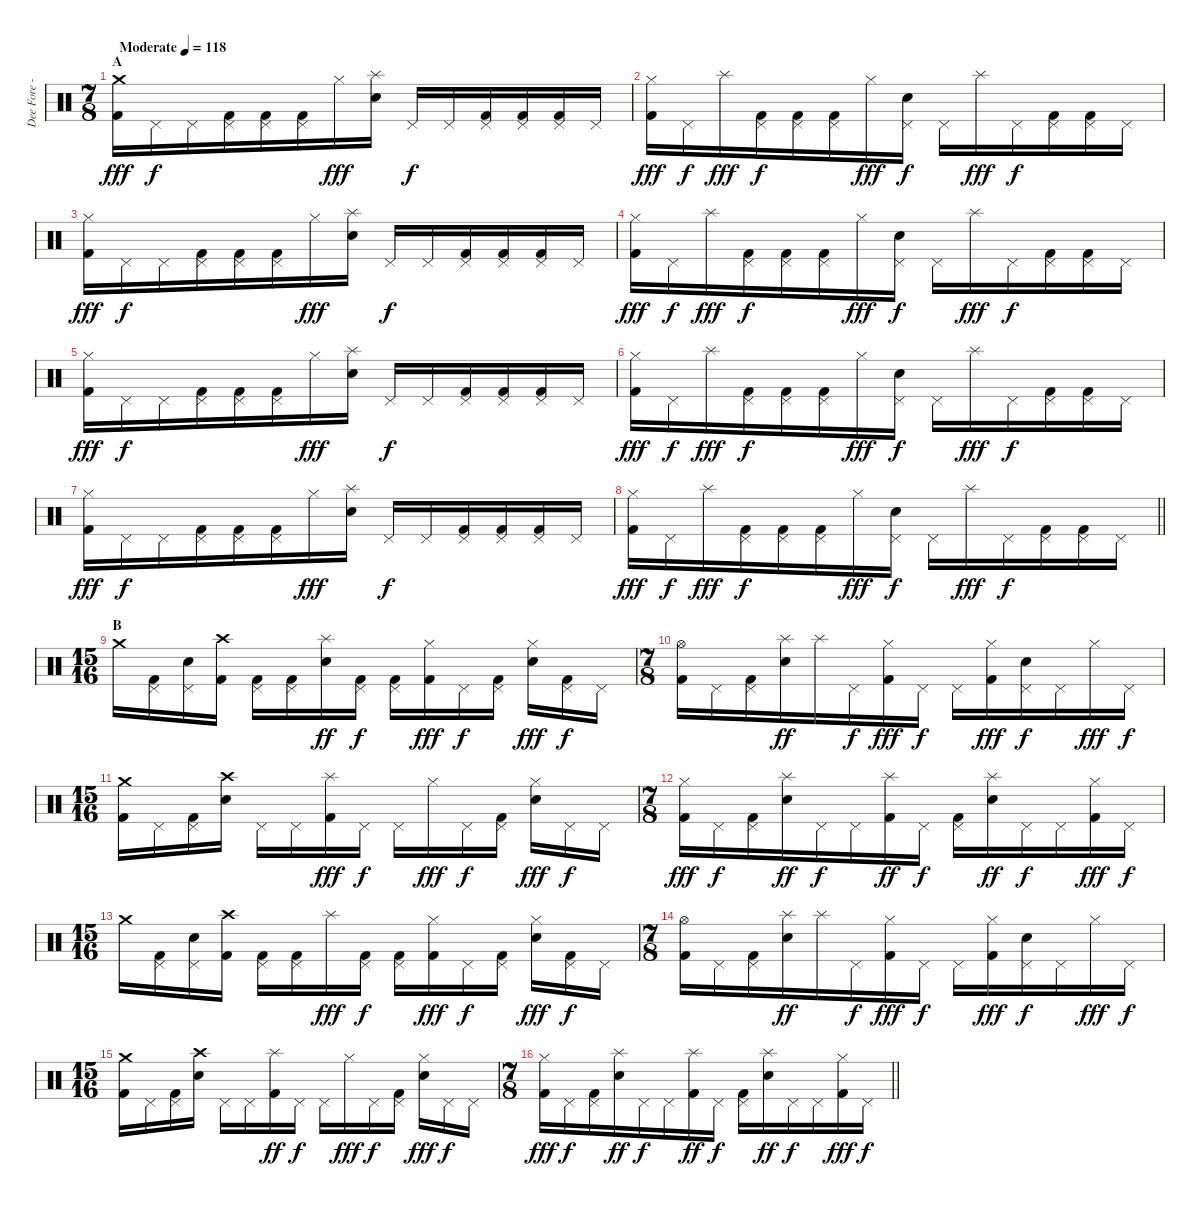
\track ("Dee Fore - Drums" "Dee Fore -") {instrument percussion}
\staff {score}
\articulation defaults
\ts (7 8)
\section ("" "A")
\tempo (118 "Moderate")
\clef neutral
\ks c
("Crash medium (hit)" "Kick (hit) 2").16{dy fff} "Pedal Hi-Hat (hit)".16{dy f} "Pedal Hi-Hat (hit)".16 ("Pedal Hi-Hat (hit)" "Kick (hit) 2").16 ("Pedal Hi-Hat (hit)" "Kick (hit) 2").16 ("Pedal Hi-Hat (hit)" "Kick (hit) 2").16 "Hi-Hat (closed)".16{dy fff} ("Splash (hit)" "Snare (hit) 2").16 "Pedal Hi-Hat (hit)".16{dy f} "Pedal Hi-Hat (hit)".16 ("Pedal Hi-Hat (hit)" "Kick (hit) 2").16 ("Pedal Hi-Hat (hit)" "Kick (hit) 2").16 ("Pedal Hi-Hat (hit)" "Kick (hit) 2").16 "Pedal Hi-Hat (hit)".16 |
("Hi-Hat (closed)" "Kick (hit) 2").16{dy fff} "Pedal Hi-Hat (hit)".16{dy f} "Splash (hit)".16{dy fff} ("Pedal Hi-Hat (hit)" "Kick (hit) 2").16{dy f} ("Pedal Hi-Hat (hit)" "Kick (hit) 2").16 ("Pedal Hi-Hat (hit)" "Kick (hit) 2").16 "Hi-Hat (closed)".16{dy fff} ("Pedal Hi-Hat (hit)" "Snare (hit) 2").16{dy f} "Pedal Hi-Hat (hit)".16 "Splash (hit)".16{dy fff} "Pedal Hi-Hat (hit)".16{dy f} ("Pedal Hi-Hat (hit)" "Kick (hit) 2").16 ("Pedal Hi-Hat (hit)" "Kick (hit) 2").16 "Pedal Hi-Hat (hit)".16 |
("Hi-Hat (closed)" "Kick (hit) 2").16{dy fff} "Pedal Hi-Hat (hit)".16{dy f} "Pedal Hi-Hat (hit)".16 ("Pedal Hi-Hat (hit)" "Kick (hit) 2").16 ("Pedal Hi-Hat (hit)" "Kick (hit) 2").16 ("Pedal Hi-Hat (hit)" "Kick (hit) 2").16 "Hi-Hat (closed)".16{dy fff} ("Splash (hit)" "Snare (hit) 2").16 "Pedal Hi-Hat (hit)".16{dy f} "Pedal Hi-Hat (hit)".16 ("Pedal Hi-Hat (hit)" "Kick (hit) 2").16 ("Pedal Hi-Hat (hit)" "Kick (hit) 2").16 ("Pedal Hi-Hat (hit)" "Kick (hit) 2").16 "Pedal Hi-Hat (hit)".16 |
("Hi-Hat (closed)" "Kick (hit) 2").16{dy fff} "Pedal Hi-Hat (hit)".16{dy f} "Splash (hit)".16{dy fff} ("Pedal Hi-Hat (hit)" "Kick (hit) 2").16{dy f} ("Pedal Hi-Hat (hit)" "Kick (hit) 2").16 ("Pedal Hi-Hat (hit)" "Kick (hit) 2").16 "Hi-Hat (closed)".16{dy fff} ("Pedal Hi-Hat (hit)" "Snare (hit) 2").16{dy f} "Pedal Hi-Hat (hit)".16 "Splash (hit)".16{dy fff} "Pedal Hi-Hat (hit)".16{dy f} ("Pedal Hi-Hat (hit)" "Kick (hit) 2").16 ("Pedal Hi-Hat (hit)" "Kick (hit) 2").16 "Pedal Hi-Hat (hit)".16 |
("Hi-Hat (closed)" "Kick (hit) 2").16{dy fff} "Pedal Hi-Hat (hit)".16{dy f} "Pedal Hi-Hat (hit)".16 ("Pedal Hi-Hat (hit)" "Kick (hit) 2").16 ("Pedal Hi-Hat (hit)" "Kick (hit) 2").16 ("Pedal Hi-Hat (hit)" "Kick (hit) 2").16 "Hi-Hat (closed)".16{dy fff} ("Splash (hit)" "Snare (hit) 2").16 "Pedal Hi-Hat (hit)".16{dy f} "Pedal Hi-Hat (hit)".16 ("Pedal Hi-Hat (hit)" "Kick (hit) 2").16 ("Pedal Hi-Hat (hit)" "Kick (hit) 2").16 ("Pedal Hi-Hat (hit)" "Kick (hit) 2").16 "Pedal Hi-Hat (hit)".16 |
("Hi-Hat (closed)" "Kick (hit) 2").16{dy fff} "Pedal Hi-Hat (hit)".16{dy f} "Splash (hit)".16{dy fff} ("Pedal Hi-Hat (hit)" "Kick (hit) 2").16{dy f} ("Pedal Hi-Hat (hit)" "Kick (hit) 2").16 ("Pedal Hi-Hat (hit)" "Kick (hit) 2").16 "Hi-Hat (closed)".16{dy fff} ("Pedal Hi-Hat (hit)" "Snare (hit) 2").16{dy f} "Pedal Hi-Hat (hit)".16 "Splash (hit)".16{dy fff} "Pedal Hi-Hat (hit)".16{dy f} ("Pedal Hi-Hat (hit)" "Kick (hit) 2").16 ("Pedal Hi-Hat (hit)" "Kick (hit) 2").16 "Pedal Hi-Hat (hit)".16 |
("Hi-Hat (closed)" "Kick (hit) 2").16{dy fff} "Pedal Hi-Hat (hit)".16{dy f} "Pedal Hi-Hat (hit)".16 ("Pedal Hi-Hat (hit)" "Kick (hit) 2").16 ("Pedal Hi-Hat (hit)" "Kick (hit) 2").16 ("Pedal Hi-Hat (hit)" "Kick (hit) 2").16 "Hi-Hat (closed)".16{dy fff} ("Splash (hit)" "Snare (hit) 2").16 "Pedal Hi-Hat (hit)".16{dy f} "Pedal Hi-Hat (hit)".16 ("Pedal Hi-Hat (hit)" "Kick (hit) 2").16 ("Pedal Hi-Hat (hit)" "Kick (hit) 2").16 ("Pedal Hi-Hat (hit)" "Kick (hit) 2").16 "Pedal Hi-Hat (hit)".16 |
\barLineRight lightlight
("Hi-Hat (closed)" "Kick (hit) 2").16{dy fff} "Pedal Hi-Hat (hit)".16{dy f} "Splash (hit)".16{dy fff} ("Pedal Hi-Hat (hit)" "Kick (hit) 2").16{dy f} ("Pedal Hi-Hat (hit)" "Kick (hit) 2").16 ("Pedal Hi-Hat (hit)" "Kick (hit) 2").16 "Hi-Hat (closed)".16{dy fff} ("Pedal Hi-Hat (hit)" "Snare (hit) 2").16{dy f} "Pedal Hi-Hat (hit)".16 "Splash (hit)".16{dy fff} "Pedal Hi-Hat (hit)".16{dy f} ("Pedal Hi-Hat (hit)" "Kick (hit) 2").16 ("Pedal Hi-Hat (hit)" "Kick (hit) 2").16 "Pedal Hi-Hat (hit)".16 |
\ts (15 16)
\section ("" "B")
"Crash medium (hit)".16 ("Pedal Hi-Hat (hit)" "Kick (hit) 2").16 ("Pedal Hi-Hat (hit)" "Snare (hit) 2").16 ("Crash high (hit)" "Kick (hit) 2").16 ("Pedal Hi-Hat (hit)" "Kick (hit) 2").16 ("Pedal Hi-Hat (hit)" "Kick (hit) 2").16 ("Splash (hit)" "Snare (hit) 2").16{dy ff} ("Pedal Hi-Hat (hit)" "Kick (hit) 2").16{dy f} ("Pedal Hi-Hat (hit)" "Kick (hit) 2").16 ("Hi-Hat (closed)" "Kick (hit) 2").16{dy fff} "Pedal Hi-Hat (hit)".16{dy f} ("Pedal Hi-Hat (hit)" "Kick (hit) 2").16 ("Hi-Hat (closed)" "Snare (hit) 2").16{dy fff} ("Pedal Hi-Hat (hit)" "Kick (hit) 2").16{dy f} "Pedal Hi-Hat (hit)".16 |
\ts (7 8)
("Hi-Hat (open)" "Kick (hit) 2").16 "Pedal Hi-Hat (hit)".16 ("Pedal Hi-Hat (hit)" "Kick (hit) 2").16 ("Splash (hit)" "Snare (hit) 2").16{dy ff} "Splash (hit)".16 "Pedal Hi-Hat (hit)".16{dy f} ("Hi-Hat (closed)" "Kick (hit) 2").16{dy fff} "Pedal Hi-Hat (hit)".16{dy f} "Pedal Hi-Hat (hit)".16 ("Hi-Hat (closed)" "Kick (hit) 2").16{dy fff} ("Pedal Hi-Hat (hit)" "Snare (hit) 2").16{dy f} "Pedal Hi-Hat (hit)".16 "Hi-Hat (closed)".16{dy fff} "Pedal Hi-Hat (hit)".16{dy f} |
\ts (15 16)
("Crash medium (hit)" "Kick (hit) 2").16 "Pedal Hi-Hat (hit)".16 ("Pedal Hi-Hat (hit)" "Kick (hit) 2").16 ("Crash high (hit)" "Snare (hit) 2").16 "Pedal Hi-Hat (hit)".16 "Pedal Hi-Hat (hit)".16 ("Splash (hit)" "Kick (hit) 2").16{dy fff} "Pedal Hi-Hat (hit)".16{dy f} "Pedal Hi-Hat (hit)".16 "Hi-Hat (closed)".16{dy fff} "Pedal Hi-Hat (hit)".16{dy f} ("Pedal Hi-Hat (hit)" "Kick (hit) 2").16 ("Hi-Hat (closed)" "Snare (hit) 2").16{dy fff} "Pedal Hi-Hat (hit)".16{dy f} "Pedal Hi-Hat (hit)".16 |
\ts (7 8)
("Hi-Hat (closed)" "Kick (hit) 2").16{dy fff} "Pedal Hi-Hat (hit)".16{dy f} ("Pedal Hi-Hat (hit)" "Kick (hit) 2").16 ("Splash (hit)" "Snare (hit) 2").16{dy ff} "Pedal Hi-Hat (hit)".16{dy f} "Pedal Hi-Hat (hit)".16 ("Splash (hit)" "Kick (hit) 2").16{dy ff} "Pedal Hi-Hat (hit)".16{dy f} ("Pedal Hi-Hat (hit)" "Kick (hit) 2").16 ("Splash (hit)" "Snare (hit) 2").16{dy ff} "Pedal Hi-Hat (hit)".16{dy f} "Pedal Hi-Hat (hit)".16 ("Hi-Hat (closed)" "Kick (hit) 2").16{dy fff} "Pedal Hi-Hat (hit)".16{dy f} |
\ts (15 16)
"Crash medium (hit)".16 ("Pedal Hi-Hat (hit)" "Kick (hit) 2").16 ("Pedal Hi-Hat (hit)" "Snare (hit) 2").16 ("Crash high (hit)" "Kick (hit) 2").16 ("Pedal Hi-Hat (hit)" "Kick (hit) 2").16 ("Pedal Hi-Hat (hit)" "Kick (hit) 2").16 "Splash (hit)".16{dy fff} ("Pedal Hi-Hat (hit)" "Kick (hit) 2").16{dy f} ("Pedal Hi-Hat (hit)" "Kick (hit) 2").16 ("Hi-Hat (closed)" "Kick (hit) 2").16{dy fff} "Pedal Hi-Hat (hit)".16{dy f} ("Pedal Hi-Hat (hit)" "Kick (hit) 2").16 ("Hi-Hat (closed)" "Snare (hit) 2").16{dy fff} ("Pedal Hi-Hat (hit)" "Kick (hit) 2").16{dy f} "Pedal Hi-Hat (hit)".16 |
\ts (7 8)
("Hi-Hat (open)" "Kick (hit) 2").16 "Pedal Hi-Hat (hit)".16 ("Pedal Hi-Hat (hit)" "Kick (hit) 2").16 ("Splash (hit)" "Snare (hit) 2").16{dy ff} "Splash (hit)".16 "Pedal Hi-Hat (hit)".16{dy f} ("Hi-Hat (closed)" "Kick (hit) 2").16{dy fff} "Pedal Hi-Hat (hit)".16{dy f} "Pedal Hi-Hat (hit)".16 ("Hi-Hat (closed)" "Kick (hit) 2").16{dy fff} ("Pedal Hi-Hat (hit)" "Snare (hit) 2").16{dy f} "Pedal Hi-Hat (hit)".16 "Hi-Hat (closed)".16{dy fff} "Pedal Hi-Hat (hit)".16{dy f} |
\ts (15 16)
("Crash medium (hit)" "Kick (hit) 2").16 "Pedal Hi-Hat (hit)".16 ("Pedal Hi-Hat (hit)" "Kick (hit) 2").16 ("Crash high (hit)" "Snare (hit) 2").16 "Pedal Hi-Hat (hit)".16 "Pedal Hi-Hat (hit)".16 ("Splash (hit)" "Kick (hit) 2").16{dy ff} "Pedal Hi-Hat (hit)".16{dy f} "Pedal Hi-Hat (hit)".16 "Hi-Hat (closed)".16{dy fff} "Pedal Hi-Hat (hit)".16{dy f} ("Pedal Hi-Hat (hit)" "Kick (hit) 2").16 ("Hi-Hat (closed)" "Snare (hit) 2").16{dy fff} "Pedal Hi-Hat (hit)".16{dy f} "Pedal Hi-Hat (hit)".16 |
\ts (7 8)
\barLineRight lightlight
("Hi-Hat (closed)" "Kick (hit) 2").16{dy fff} "Pedal Hi-Hat (hit)".16{dy f} ("Pedal Hi-Hat (hit)" "Kick (hit) 2").16 ("Splash (hit)" "Snare (hit) 2").16{dy ff} "Pedal Hi-Hat (hit)".16{dy f} "Pedal Hi-Hat (hit)".16 ("Splash (hit)" "Kick (hit) 2").16{dy ff} "Pedal Hi-Hat (hit)".16{dy f} ("Pedal Hi-Hat (hit)" "Kick (hit) 2").16 ("Splash (hit)" "Snare (hit) 2").16{dy ff} "Pedal Hi-Hat (hit)".16{dy f} "Pedal Hi-Hat (hit)".16 ("Hi-Hat (closed)" "Kick (hit) 2").16{dy fff} "Pedal Hi-Hat (hit)".16{dy f}
